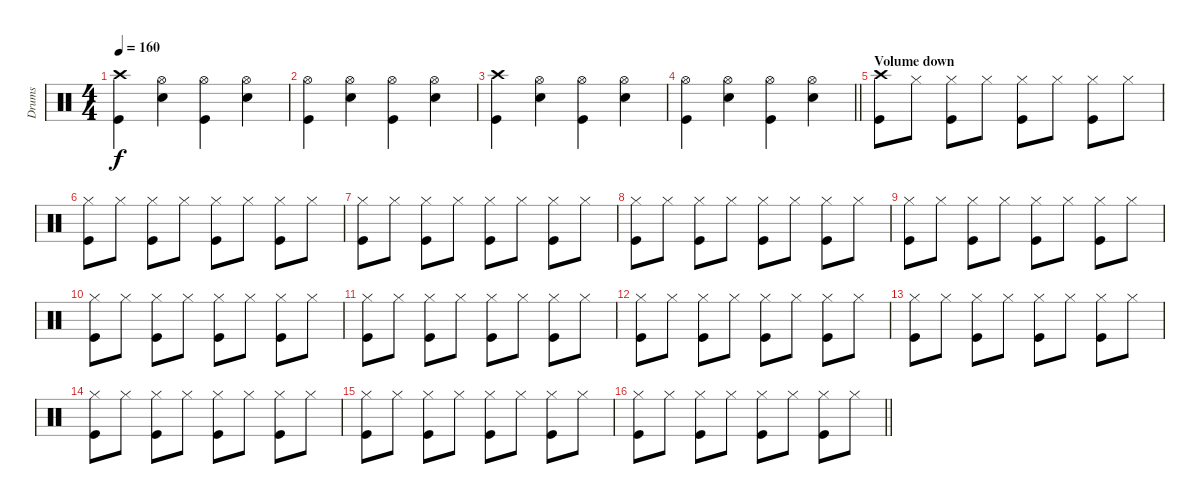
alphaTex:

\track ("Drums" "Drums") {instrument percussion}
\staff {score}
\articulation defaults
\ts (4 4)
\tempo 160
\clef neutral
\ks c
("Kick (hit)" "Crash high (hit)").4{dy f} ("Snare (hit) 2" "Hi-Hat (open)").4 ("Kick (hit)" "Hi-Hat (open)").4 ("Snare (hit) 2" "Hi-Hat (open)").4 |
("Kick (hit)" "Hi-Hat (open)").4 ("Snare (hit) 2" "Hi-Hat (open)").4 ("Kick (hit)" "Hi-Hat (open)").4 ("Snare (hit) 2" "Hi-Hat (open)").4 |
("Kick (hit)" "Crash high (hit)").4 ("Snare (hit) 2" "Hi-Hat (open)").4 ("Kick (hit)" "Hi-Hat (open)").4 ("Snare (hit) 2" "Hi-Hat (open)").4 |
\barLineRight lightlight
("Kick (hit)" "Hi-Hat (open)").4 ("Snare (hit) 2" "Hi-Hat (open)").4 ("Kick (hit)" "Hi-Hat (open)").4 ("Snare (hit) 2" "Hi-Hat (open)").4 |
\section ("" "Volume down")
("Kick (hit)" "Crash high (hit)").8 "Hi-Hat (closed)".8 ("Kick (hit)" "Hi-Hat (closed)").8 "Hi-Hat (closed)".8 ("Kick (hit)" "Hi-Hat (closed)").8 "Hi-Hat (closed)".8 ("Kick (hit)" "Hi-Hat (closed)").8 "Hi-Hat (closed)".8 |
("Kick (hit)" "Hi-Hat (closed)").8 "Hi-Hat (closed)".8 ("Kick (hit)" "Hi-Hat (closed)").8 "Hi-Hat (closed)".8 ("Kick (hit)" "Hi-Hat (closed)").8 "Hi-Hat (closed)".8 ("Kick (hit)" "Hi-Hat (closed)").8 "Hi-Hat (closed)".8 |
("Kick (hit)" "Hi-Hat (closed)").8 "Hi-Hat (closed)".8 ("Kick (hit)" "Hi-Hat (closed)").8 "Hi-Hat (closed)".8 ("Kick (hit)" "Hi-Hat (closed)").8 "Hi-Hat (closed)".8 ("Kick (hit)" "Hi-Hat (closed)").8 "Hi-Hat (closed)".8 |
("Kick (hit)" "Hi-Hat (closed)").8 "Hi-Hat (closed)".8 ("Kick (hit)" "Hi-Hat (closed)").8 "Hi-Hat (closed)".8 ("Kick (hit)" "Hi-Hat (closed)").8 "Hi-Hat (closed)".8 ("Kick (hit)" "Hi-Hat (closed)").8 "Hi-Hat (closed)".8 |
("Kick (hit)" "Hi-Hat (closed)").8 "Hi-Hat (closed)".8 ("Kick (hit)" "Hi-Hat (closed)").8 "Hi-Hat (closed)".8 ("Kick (hit)" "Hi-Hat (closed)").8 "Hi-Hat (closed)".8 ("Kick (hit)" "Hi-Hat (closed)").8 "Hi-Hat (closed)".8 |
("Kick (hit)" "Hi-Hat (closed)").8 "Hi-Hat (closed)".8 ("Kick (hit)" "Hi-Hat (closed)").8 "Hi-Hat (closed)".8 ("Kick (hit)" "Hi-Hat (closed)").8 "Hi-Hat (closed)".8 ("Kick (hit)" "Hi-Hat (closed)").8 "Hi-Hat (closed)".8 |
("Kick (hit)" "Hi-Hat (closed)").8 "Hi-Hat (closed)".8 ("Kick (hit)" "Hi-Hat (closed)").8 "Hi-Hat (closed)".8 ("Kick (hit)" "Hi-Hat (closed)").8 "Hi-Hat (closed)".8 ("Kick (hit)" "Hi-Hat (closed)").8 "Hi-Hat (closed)".8 |
("Kick (hit)" "Hi-Hat (closed)").8 "Hi-Hat (closed)".8 ("Kick (hit)" "Hi-Hat (closed)").8 "Hi-Hat (closed)".8 ("Kick (hit)" "Hi-Hat (closed)").8 "Hi-Hat (closed)".8 ("Kick (hit)" "Hi-Hat (closed)").8 "Hi-Hat (closed)".8 |
("Kick (hit)" "Hi-Hat (closed)").8 "Hi-Hat (closed)".8 ("Kick (hit)" "Hi-Hat (closed)").8 "Hi-Hat (closed)".8 ("Kick (hit)" "Hi-Hat (closed)").8 "Hi-Hat (closed)".8 ("Kick (hit)" "Hi-Hat (closed)").8 "Hi-Hat (closed)".8 |
("Kick (hit)" "Hi-Hat (closed)").8 "Hi-Hat (closed)".8 ("Kick (hit)" "Hi-Hat (closed)").8 "Hi-Hat (closed)".8 ("Kick (hit)" "Hi-Hat (closed)").8 "Hi-Hat (closed)".8 ("Kick (hit)" "Hi-Hat (closed)").8 "Hi-Hat (closed)".8 |
("Kick (hit)" "Hi-Hat (closed)").8 "Hi-Hat (closed)".8 ("Kick (hit)" "Hi-Hat (closed)").8 "Hi-Hat (closed)".8 ("Kick (hit)" "Hi-Hat (closed)").8 "Hi-Hat (closed)".8 ("Kick (hit)" "Hi-Hat (closed)").8 "Hi-Hat (closed)".8 |
\barLineRight lightlight
("Kick (hit)" "Hi-Hat (closed)").8 "Hi-Hat (closed)".8 ("Kick (hit)" "Hi-Hat (closed)").8 "Hi-Hat (closed)".8 ("Kick (hit)" "Hi-Hat (closed)").8 "Hi-Hat (closed)".8 ("Kick (hit)" "Hi-Hat (closed)").8 "Hi-Hat (closed)".8
